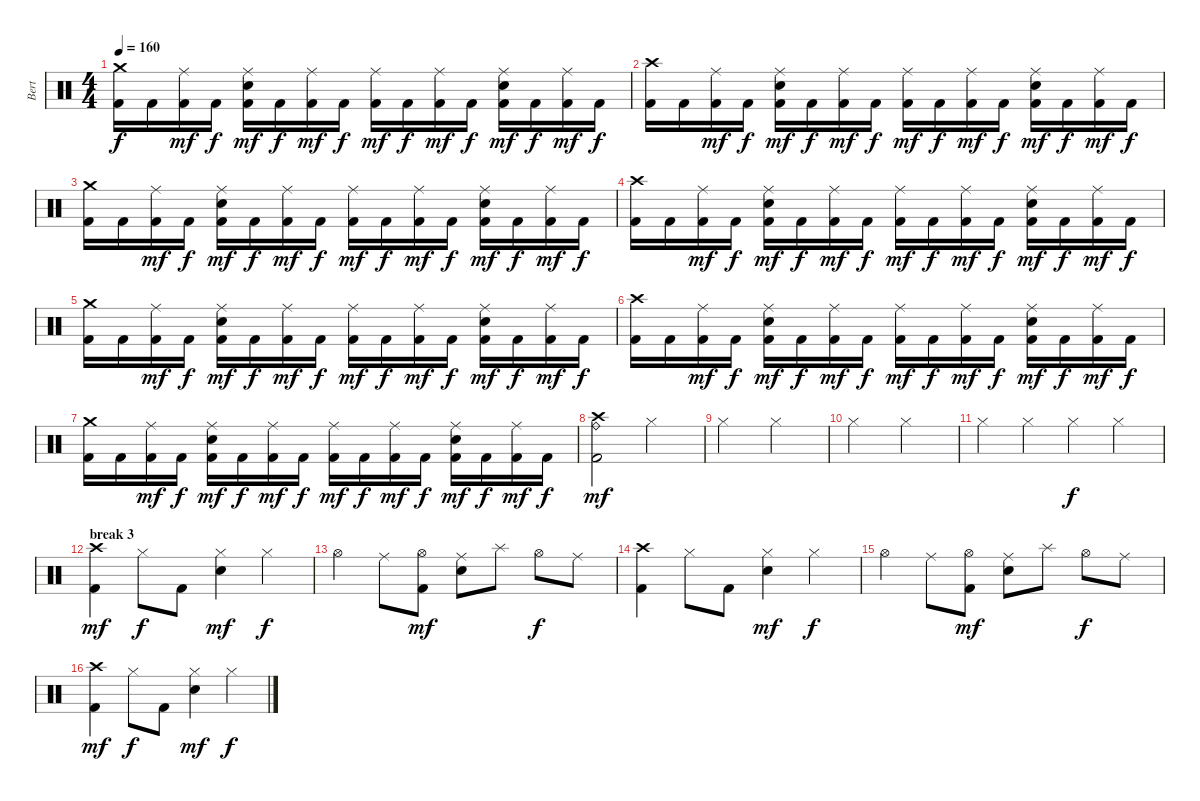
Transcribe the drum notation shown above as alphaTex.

\track ("Bert" "Bert") {instrument percussion}
\staff {score}
\articulation defaults
\ts (4 4)
\tempo 160
\clef neutral
\ks c
("Crash medium (hit)" "Kick (hit) 2").16{dy f} "Kick (hit) 2".16 ("Ride (middle)" "Kick (hit) 2").16{dy mf} "Kick (hit) 2".16{dy f} ("Ride (middle)" "Snare (hit) 2" "Kick (hit) 2").16{dy mf} "Kick (hit) 2".16{dy f} ("Ride (middle)" "Kick (hit) 2").16{dy mf} "Kick (hit) 2".16{dy f} ("Ride (middle)" "Kick (hit) 2").16{dy mf} "Kick (hit) 2".16{dy f} ("Ride (middle)" "Kick (hit) 2").16{dy mf} "Kick (hit) 2".16{dy f} ("Ride (middle)" "Snare (hit) 2" "Kick (hit) 2").16{dy mf} "Kick (hit) 2".16{dy f} ("Ride (middle)" "Kick (hit) 2").16{dy mf} "Kick (hit) 2".16{dy f} |
("Crash high (hit)" "Kick (hit) 2").16 "Kick (hit) 2".16 ("Ride (middle)" "Kick (hit) 2").16{dy mf} "Kick (hit) 2".16{dy f} ("Ride (middle)" "Snare (hit) 2" "Kick (hit) 2").16{dy mf} "Kick (hit) 2".16{dy f} ("Ride (middle)" "Kick (hit) 2").16{dy mf} "Kick (hit) 2".16{dy f} ("Ride (middle)" "Kick (hit) 2").16{dy mf} "Kick (hit) 2".16{dy f} ("Ride (middle)" "Kick (hit) 2").16{dy mf} "Kick (hit) 2".16{dy f} ("Ride (middle)" "Snare (hit) 2" "Kick (hit) 2").16{dy mf} "Kick (hit) 2".16{dy f} ("Ride (middle)" "Kick (hit) 2").16{dy mf} "Kick (hit) 2".16{dy f} |
("Crash medium (hit)" "Kick (hit) 2").16 "Kick (hit) 2".16 ("Ride (middle)" "Kick (hit) 2").16{dy mf} "Kick (hit) 2".16{dy f} ("Ride (middle)" "Snare (hit) 2" "Kick (hit) 2").16{dy mf} "Kick (hit) 2".16{dy f} ("Ride (middle)" "Kick (hit) 2").16{dy mf} "Kick (hit) 2".16{dy f} ("Ride (middle)" "Kick (hit) 2").16{dy mf} "Kick (hit) 2".16{dy f} ("Ride (middle)" "Kick (hit) 2").16{dy mf} "Kick (hit) 2".16{dy f} ("Ride (middle)" "Snare (hit) 2" "Kick (hit) 2").16{dy mf} "Kick (hit) 2".16{dy f} ("Ride (middle)" "Kick (hit) 2").16{dy mf} "Kick (hit) 2".16{dy f} |
("Crash high (hit)" "Kick (hit) 2").16 "Kick (hit) 2".16 ("Ride (middle)" "Kick (hit) 2").16{dy mf} "Kick (hit) 2".16{dy f} ("Ride (middle)" "Snare (hit) 2" "Kick (hit) 2").16{dy mf} "Kick (hit) 2".16{dy f} ("Ride (middle)" "Kick (hit) 2").16{dy mf} "Kick (hit) 2".16{dy f} ("Ride (middle)" "Kick (hit) 2").16{dy mf} "Kick (hit) 2".16{dy f} ("Ride (middle)" "Kick (hit) 2").16{dy mf} "Kick (hit) 2".16{dy f} ("Ride (middle)" "Snare (hit) 2" "Kick (hit) 2").16{dy mf} "Kick (hit) 2".16{dy f} ("Ride (middle)" "Kick (hit) 2").16{dy mf} "Kick (hit) 2".16{dy f} |
("Crash medium (hit)" "Kick (hit) 2").16 "Kick (hit) 2".16 ("Ride (middle)" "Kick (hit) 2").16{dy mf} "Kick (hit) 2".16{dy f} ("Ride (middle)" "Snare (hit) 2" "Kick (hit) 2").16{dy mf} "Kick (hit) 2".16{dy f} ("Ride (middle)" "Kick (hit) 2").16{dy mf} "Kick (hit) 2".16{dy f} ("Ride (middle)" "Kick (hit) 2").16{dy mf} "Kick (hit) 2".16{dy f} ("Ride (middle)" "Kick (hit) 2").16{dy mf} "Kick (hit) 2".16{dy f} ("Ride (middle)" "Snare (hit) 2" "Kick (hit) 2").16{dy mf} "Kick (hit) 2".16{dy f} ("Ride (middle)" "Kick (hit) 2").16{dy mf} "Kick (hit) 2".16{dy f} |
("Crash high (hit)" "Kick (hit) 2").16 "Kick (hit) 2".16 ("Ride (middle)" "Kick (hit) 2").16{dy mf} "Kick (hit) 2".16{dy f} ("Ride (middle)" "Snare (hit) 2" "Kick (hit) 2").16{dy mf} "Kick (hit) 2".16{dy f} ("Ride (middle)" "Kick (hit) 2").16{dy mf} "Kick (hit) 2".16{dy f} ("Ride (middle)" "Kick (hit) 2").16{dy mf} "Kick (hit) 2".16{dy f} ("Ride (middle)" "Kick (hit) 2").16{dy mf} "Kick (hit) 2".16{dy f} ("Ride (middle)" "Snare (hit) 2" "Kick (hit) 2").16{dy mf} "Kick (hit) 2".16{dy f} ("Ride (middle)" "Kick (hit) 2").16{dy mf} "Kick (hit) 2".16{dy f} |
("Crash medium (hit)" "Kick (hit) 2").16 "Kick (hit) 2".16 ("Ride (middle)" "Kick (hit) 2").16{dy mf} "Kick (hit) 2".16{dy f} ("Ride (middle)" "Snare (hit) 2" "Kick (hit) 2").16{dy mf} "Kick (hit) 2".16{dy f} ("Ride (middle)" "Kick (hit) 2").16{dy mf} "Kick (hit) 2".16{dy f} ("Ride (middle)" "Kick (hit) 2").16{dy mf} "Kick (hit) 2".16{dy f} ("Ride (middle)" "Kick (hit) 2").16{dy mf} "Kick (hit) 2".16{dy f} ("Ride (middle)" "Snare (hit) 2" "Kick (hit) 2").16{dy mf} "Kick (hit) 2".16{dy f} ("Ride (middle)" "Kick (hit) 2").16{dy mf} "Kick (hit) 2".16{dy f} |
("Crash high (hit)" "Ride (bell)" "Kick (hit) 2").2{dy mf} "Hi-Hat (closed)".2 |
"Hi-Hat (closed)".2 "Hi-Hat (closed)".2 |
"Hi-Hat (closed)".2 "Hi-Hat (closed)".2 |
"Hi-Hat (closed)".4 "Hi-Hat (closed)".4 "Hi-Hat (closed)".4{dy f} "Hi-Hat (closed)".4 |
\section ("" "break 3")
("Crash high (hit)" "Kick (hit) 2").4{dy mf} "Hi-Hat (closed)".8{dy f} "Kick (hit) 2".8 ("Hi-Hat (closed)" "Snare (hit) 2").4{dy mf} "Hi-Hat (closed)".4{dy f} |
"Hi-Hat (open)".4 "Ride (middle)".8 ("Hi-Hat (open)" "Kick (hit) 2").8{dy mf} ("Ride (middle)" "Snare (hit) 2").8 "Splash (hit)".8 "Hi-Hat (open)".8{dy f} "Ride (middle)".8 |
("Crash high (hit)" "Kick (hit) 2").4 "Hi-Hat (closed)".8 "Kick (hit) 2".8 ("Hi-Hat (closed)" "Snare (hit) 2").4{dy mf} "Hi-Hat (closed)".4{dy f} |
"Hi-Hat (open)".4 "Ride (middle)".8 ("Hi-Hat (open)" "Kick (hit) 2").8{dy mf} ("Ride (middle)" "Snare (hit) 2").8 "Splash (hit)".8 "Hi-Hat (open)".8{dy f} "Ride (middle)".8 |
("Crash high (hit)" "Kick (hit) 2").4{dy mf} "Hi-Hat (closed)".8{dy f} "Kick (hit) 2".8 ("Hi-Hat (closed)" "Snare (hit) 2").4{dy mf} "Hi-Hat (closed)".4{dy f}
